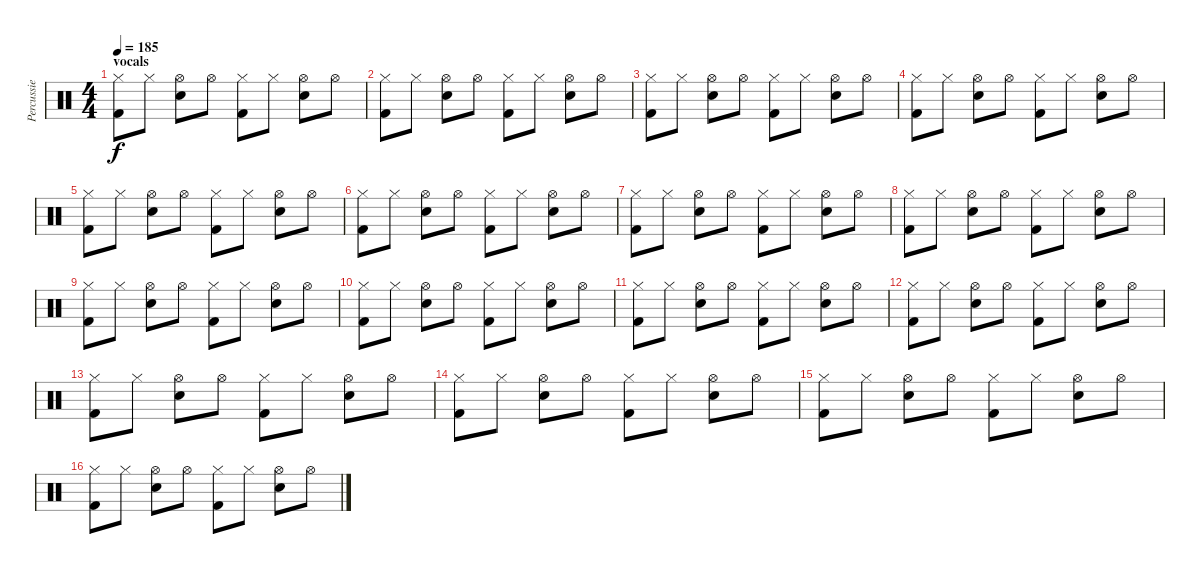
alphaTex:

\track ("Percussie" "Percussie") {instrument percussion}
\staff {score}
\articulation defaults
\ts (4 4)
\section ("" "vocals")
\tempo 185
\clef neutral
\ks c
("Hi-Hat (closed)" "Kick (hit) 2").8{dy f} "Hi-Hat (closed)".8 ("Hi-Hat (open)" "Snare (hit) 2").8 "Hi-Hat (open)".8 ("Hi-Hat (closed)" "Kick (hit) 2").8 "Hi-Hat (closed)".8 ("Hi-Hat (open)" "Snare (hit) 2").8 "Hi-Hat (open)".8 |
("Hi-Hat (closed)" "Kick (hit) 2").8 "Hi-Hat (closed)".8 ("Hi-Hat (open)" "Snare (hit) 2").8 "Hi-Hat (open)".8 ("Hi-Hat (closed)" "Kick (hit) 2").8 "Hi-Hat (closed)".8 ("Hi-Hat (open)" "Snare (hit) 2").8 "Hi-Hat (open)".8 |
("Hi-Hat (closed)" "Kick (hit) 2").8 "Hi-Hat (closed)".8 ("Hi-Hat (open)" "Snare (hit) 2").8 "Hi-Hat (open)".8 ("Hi-Hat (closed)" "Kick (hit) 2").8 "Hi-Hat (closed)".8 ("Hi-Hat (open)" "Snare (hit) 2").8 "Hi-Hat (open)".8 |
("Hi-Hat (closed)" "Kick (hit) 2").8 "Hi-Hat (closed)".8 ("Hi-Hat (open)" "Snare (hit) 2").8 "Hi-Hat (open)".8 ("Hi-Hat (closed)" "Kick (hit) 2").8 "Hi-Hat (closed)".8 ("Hi-Hat (open)" "Snare (hit) 2").8 "Hi-Hat (open)".8 |
("Hi-Hat (closed)" "Kick (hit) 2").8 "Hi-Hat (closed)".8 ("Hi-Hat (open)" "Snare (hit) 2").8 "Hi-Hat (open)".8 ("Hi-Hat (closed)" "Kick (hit) 2").8 "Hi-Hat (closed)".8 ("Hi-Hat (open)" "Snare (hit) 2").8 "Hi-Hat (open)".8 |
("Hi-Hat (closed)" "Kick (hit) 2").8 "Hi-Hat (closed)".8 ("Hi-Hat (open)" "Snare (hit) 2").8 "Hi-Hat (open)".8 ("Hi-Hat (closed)" "Kick (hit) 2").8 "Hi-Hat (closed)".8 ("Hi-Hat (open)" "Snare (hit) 2").8 "Hi-Hat (open)".8 |
("Hi-Hat (closed)" "Kick (hit) 2").8 "Hi-Hat (closed)".8 ("Hi-Hat (open)" "Snare (hit) 2").8 "Hi-Hat (open)".8 ("Hi-Hat (closed)" "Kick (hit) 2").8 "Hi-Hat (closed)".8 ("Hi-Hat (open)" "Snare (hit) 2").8 "Hi-Hat (open)".8 |
("Hi-Hat (closed)" "Kick (hit) 2").8 "Hi-Hat (closed)".8 ("Hi-Hat (open)" "Snare (hit) 2").8 "Hi-Hat (open)".8 ("Hi-Hat (closed)" "Kick (hit) 2").8 "Hi-Hat (closed)".8 ("Hi-Hat (open)" "Snare (hit) 2").8 "Hi-Hat (open)".8 |
("Hi-Hat (closed)" "Kick (hit) 2").8 "Hi-Hat (closed)".8 ("Hi-Hat (open)" "Snare (hit) 2").8 "Hi-Hat (open)".8 ("Hi-Hat (closed)" "Kick (hit) 2").8 "Hi-Hat (closed)".8 ("Hi-Hat (open)" "Snare (hit) 2").8 "Hi-Hat (open)".8 |
("Hi-Hat (closed)" "Kick (hit) 2").8 "Hi-Hat (closed)".8 ("Hi-Hat (open)" "Snare (hit) 2").8 "Hi-Hat (open)".8 ("Hi-Hat (closed)" "Kick (hit) 2").8 "Hi-Hat (closed)".8 ("Hi-Hat (open)" "Snare (hit) 2").8 "Hi-Hat (open)".8 |
("Hi-Hat (closed)" "Kick (hit) 2").8 "Hi-Hat (closed)".8 ("Hi-Hat (open)" "Snare (hit) 2").8 "Hi-Hat (open)".8 ("Hi-Hat (closed)" "Kick (hit) 2").8 "Hi-Hat (closed)".8 ("Hi-Hat (open)" "Snare (hit) 2").8 "Hi-Hat (open)".8 |
("Hi-Hat (closed)" "Kick (hit) 2").8 "Hi-Hat (closed)".8 ("Hi-Hat (open)" "Snare (hit) 2").8 "Hi-Hat (open)".8 ("Hi-Hat (closed)" "Kick (hit) 2").8 "Hi-Hat (closed)".8 ("Hi-Hat (open)" "Snare (hit) 2").8 "Hi-Hat (open)".8 |
("Hi-Hat (closed)" "Kick (hit) 2").8 "Hi-Hat (closed)".8 ("Hi-Hat (open)" "Snare (hit) 2").8 "Hi-Hat (open)".8 ("Hi-Hat (closed)" "Kick (hit) 2").8 "Hi-Hat (closed)".8 ("Hi-Hat (open)" "Snare (hit) 2").8 "Hi-Hat (open)".8 |
("Hi-Hat (closed)" "Kick (hit) 2").8 "Hi-Hat (closed)".8 ("Hi-Hat (open)" "Snare (hit) 2").8 "Hi-Hat (open)".8 ("Hi-Hat (closed)" "Kick (hit) 2").8 "Hi-Hat (closed)".8 ("Hi-Hat (open)" "Snare (hit) 2").8 "Hi-Hat (open)".8 |
("Hi-Hat (closed)" "Kick (hit) 2").8 "Hi-Hat (closed)".8 ("Hi-Hat (open)" "Snare (hit) 2").8 "Hi-Hat (open)".8 ("Hi-Hat (closed)" "Kick (hit) 2").8 "Hi-Hat (closed)".8 ("Hi-Hat (open)" "Snare (hit) 2").8 "Hi-Hat (open)".8 |
("Hi-Hat (closed)" "Kick (hit) 2").8 "Hi-Hat (closed)".8 ("Hi-Hat (open)" "Snare (hit) 2").8 "Hi-Hat (open)".8 ("Hi-Hat (closed)" "Kick (hit) 2").8 "Hi-Hat (closed)".8 ("Hi-Hat (open)" "Snare (hit) 2").8 "Hi-Hat (open)".8
